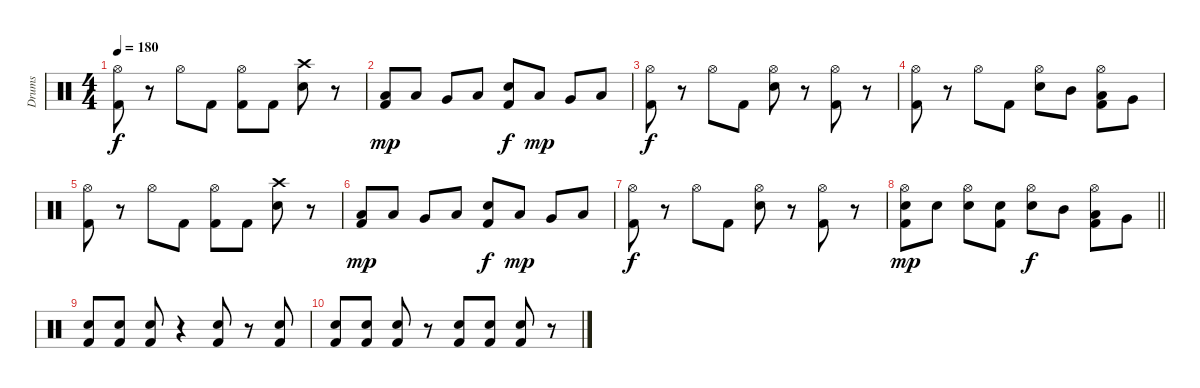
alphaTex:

\track ("Drums" "Drums") {instrument percussion}
\staff {score}
\articulation defaults
\ts (4 4)
\tempo 180
\clef neutral
\ks c
("Hi-Hat (open)" "Kick (hit) 2").8{dy f} r.8 "Hi-Hat (open)".8 "Kick (hit) 2".8 ("Hi-Hat (open)" "Kick (hit) 2").8 "Kick (hit) 2".8 ("Crash high (hit)" "Electric Snare (hit)").8 r.8 |
("Low Tom (hit)" "Kick (hit) 2").8{dy mp} "Low Tom (hit)".8 "Very Low Tom (hit)".8 "Low Floor Tom (hit)".8 ("Electric Snare (hit)" "Kick (hit) 2").8{dy f} "Low Tom (hit)".8{dy mp} "Very Low Tom (hit)".8 "Low Floor Tom (hit)".8 |
("Hi-Hat (open)" "Kick (hit) 2").8{dy f} r.8 "Hi-Hat (open)".8 "Kick (hit) 2".8 ("Hi-Hat (open)" "Electric Snare (hit)").8 r.8 ("Hi-Hat (open)" "Kick (hit) 2").8 r.8 |
("Hi-Hat (open)" "Kick (hit) 2").8 r.8 "Hi-Hat (open)".8 "Kick (hit) 2".8 ("Hi-Hat (open)" "Electric Snare (hit)").8 "Mid Tom (hit)".8 ("Hi-Hat (open)" "Low Tom (hit)" "Kick (hit) 2").8 "Very Low Tom (hit)".8 |
("Hi-Hat (open)" "Kick (hit) 2").8 r.8 "Hi-Hat (open)".8 "Kick (hit) 2".8 ("Hi-Hat (open)" "Kick (hit) 2").8 "Kick (hit) 2".8 ("Crash high (hit)" "Electric Snare (hit)").8 r.8 |
("Low Tom (hit)" "Kick (hit) 2").8{dy mp} "Low Tom (hit)".8 "Very Low Tom (hit)".8 "Low Floor Tom (hit)".8 ("Electric Snare (hit)" "Kick (hit) 2").8{dy f} "Low Tom (hit)".8{dy mp} "Very Low Tom (hit)".8 "Low Floor Tom (hit)".8 |
("Hi-Hat (open)" "Kick (hit) 2").8{dy f} r.8 "Hi-Hat (open)".8 "Kick (hit) 2".8 ("Hi-Hat (open)" "Electric Snare (hit)").8 r.8 ("Hi-Hat (open)" "Kick (hit) 2").8 r.8 |
\barLineRight lightlight
("Hi-Hat (open)" "Electric Snare (hit)" "Kick (hit) 2").8{dy mp} "Electric Snare (hit)".8 ("Hi-Hat (open)" "Electric Snare (hit)").8 ("Electric Snare (hit)" "Kick (hit) 2").8 ("Hi-Hat (open)" "Electric Snare (hit)").8{dy f} "Mid Tom (hit)".8 ("Hi-Hat (open)" "Low Tom (hit)" "Kick (hit) 2").8 "Very Low Tom (hit)".8 |
("Electric Snare (hit)" "Kick (hit) 2").8 ("Electric Snare (hit)" "Kick (hit) 2").8 ("Electric Snare (hit)" "Kick (hit) 2").8 r.4 ("Electric Snare (hit)" "Kick (hit) 2").8 r.8 ("Electric Snare (hit)" "Kick (hit) 2").8 |
("Electric Snare (hit)" "Kick (hit) 2").8 ("Electric Snare (hit)" "Kick (hit) 2").8 ("Electric Snare (hit)" "Kick (hit) 2").8 r.8 ("Electric Snare (hit)" "Kick (hit) 2").8 ("Electric Snare (hit)" "Kick (hit) 2").8 ("Electric Snare (hit)" "Kick (hit) 2").8 r.8
